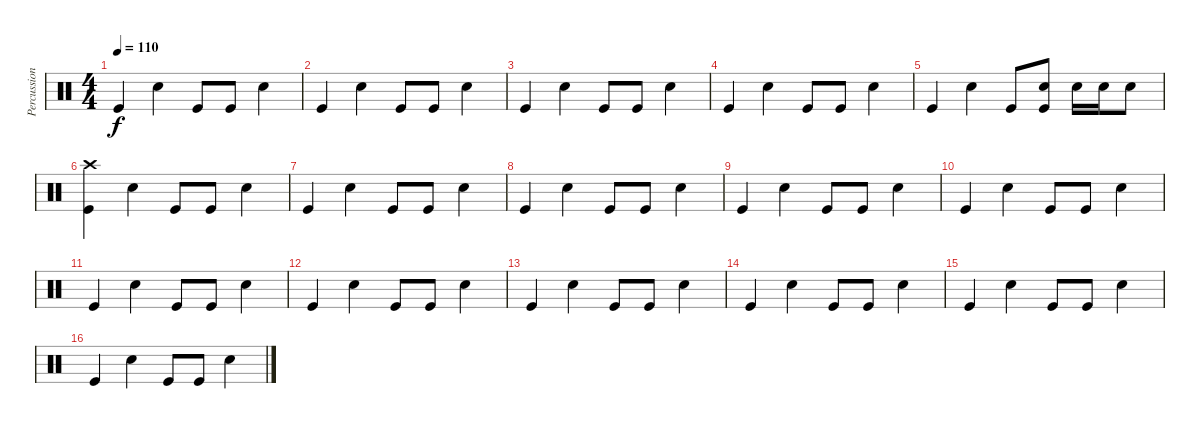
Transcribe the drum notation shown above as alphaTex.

\track ("Percussion" "Percussion") {instrument percussion}
\staff {score}
\articulation defaults
\ts (4 4)
\tempo 110
\clef neutral
\ks c "Kick (hit)".4{dy f} "Snare (hit) 2".4 "Kick (hit)".8 "Kick (hit)".8 "Snare (hit) 2".4
|
"Kick (hit)".4 "Snare (hit) 2".4 "Kick (hit)".8 "Kick (hit)".8 "Snare (hit) 2".4 |
"Kick (hit)".4 "Snare (hit) 2".4 "Kick (hit)".8 "Kick (hit)".8 "Snare (hit) 2".4 |
"Kick (hit)".4 "Snare (hit) 2".4 "Kick (hit)".8 "Kick (hit)".8 "Snare (hit) 2".4 |
"Kick (hit)".4 "Snare (hit) 2".4 "Kick (hit)".8 ("Snare (hit) 2" "Kick (hit)").8 "Snare (hit) 2".16 "Snare (hit) 2".16 "Snare (hit) 2".8 |
("Crash high (hit)" "Kick (hit)").4 "Snare (hit) 2".4 "Kick (hit)".8 "Kick (hit)".8 "Snare (hit) 2".4 |
"Kick (hit)".4 "Snare (hit) 2".4 "Kick (hit)".8 "Kick (hit)".8 "Snare (hit) 2".4 |
"Kick (hit)".4 "Snare (hit) 2".4 "Kick (hit)".8 "Kick (hit)".8 "Snare (hit) 2".4 |
"Kick (hit)".4 "Snare (hit) 2".4 "Kick (hit)".8 "Kick (hit)".8 "Snare (hit) 2".4 |
"Kick (hit)".4 "Snare (hit) 2".4 "Kick (hit)".8 "Kick (hit)".8 "Snare (hit) 2".4 |
"Kick (hit)".4 "Snare (hit) 2".4 "Kick (hit)".8 "Kick (hit)".8 "Snare (hit) 2".4 |
"Kick (hit)".4 "Snare (hit) 2".4 "Kick (hit)".8 "Kick (hit)".8 "Snare (hit) 2".4 |
"Kick (hit)".4 "Snare (hit) 2".4 "Kick (hit)".8 "Kick (hit)".8 "Snare (hit) 2".4 |
"Kick (hit)".4 "Snare (hit) 2".4 "Kick (hit)".8 "Kick (hit)".8 "Snare (hit) 2".4 |
"Kick (hit)".4 "Snare (hit) 2".4 "Kick (hit)".8 "Kick (hit)".8 "Snare (hit) 2".4 |
"Kick (hit)".4 "Snare (hit) 2".4 "Kick (hit)".8 "Kick (hit)".8 "Snare (hit) 2".4
